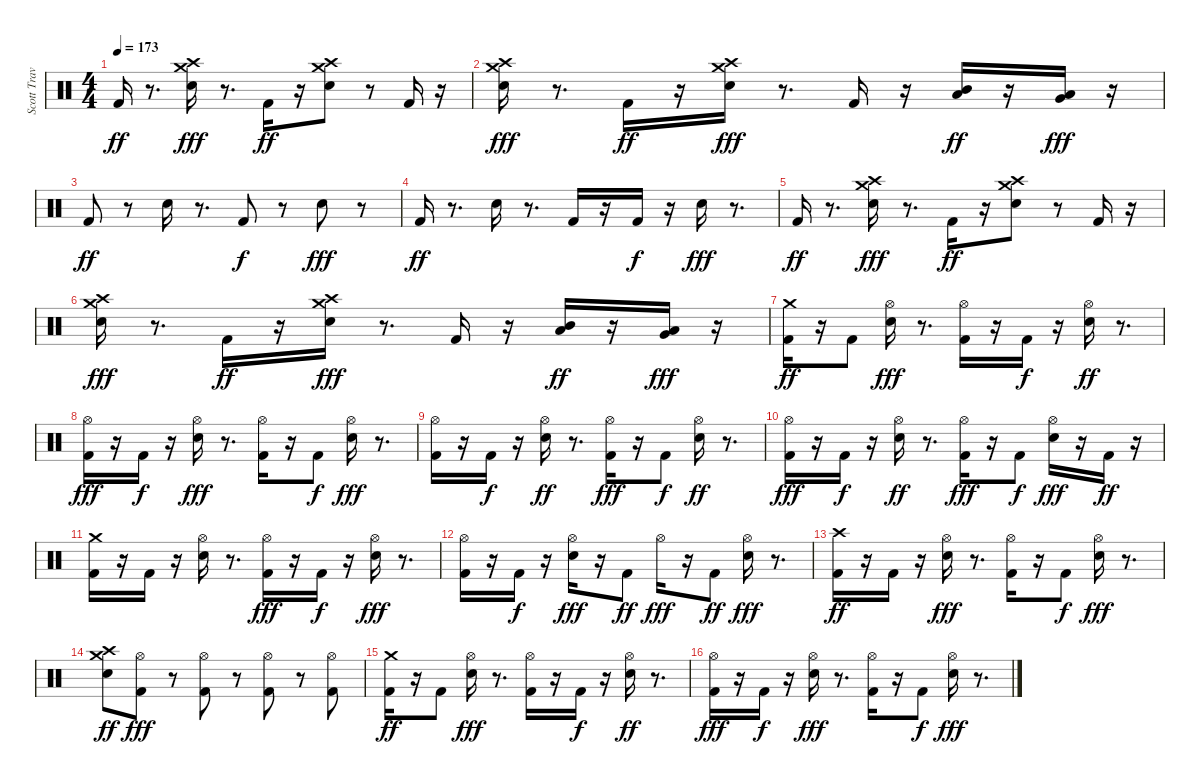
\track ("Scott Travis" "Scott Trav") {instrument percussion}
\staff {score}
\articulation defaults
\ts (4 4)
\tempo 173
\clef neutral
\ks c "Kick (hit) 2".16{dy ff}
r.8{d} ("Snare (hit) 2" "Crash high (hit)" "Crash medium (hit)").16{dy fff} r.8{d} "Kick (hit) 2".16{dy ff} r.16 ("Snare (hit) 2" "Crash high (hit)" "Crash medium (hit)").8 r.8 "Kick (hit) 2".16 r.16 |
("Snare (hit) 2" "Crash high (hit)" "Crash medium (hit)").16{dy fff} r.8{d} "Kick (hit) 2".16{dy ff} r.16 ("Snare (hit) 2" "Crash medium (hit)" "Crash high (hit)").16{dy fff} r.8{d} "Kick (hit) 2".16 r.16 ("Mid Tom (hit)" "Low Tom (hit)").16{dy ff} r.16 ("Very Low Tom (hit)" "Low Tom (hit)").16{dy fff} r.16 |
"Kick (hit) 2".8{dy ff} r.8 "Snare (hit) 2".16 r.8{d} "Kick (hit) 2".8{dy f} r.8 "Snare (hit) 2".8{dy fff} r.8 |
"Kick (hit) 2".16{dy ff} r.8{d} "Snare (hit) 2".16 r.8{d} "Kick (hit) 2".16 r.16 "Kick (hit) 2".16{dy f} r.16 "Snare (hit) 2".16{dy fff} r.8{d} |
"Kick (hit) 2".16{dy ff} r.8{d} ("Snare (hit) 2" "Crash high (hit)" "Crash medium (hit)").16{dy fff} r.8{d} "Kick (hit) 2".16{dy ff} r.16 ("Snare (hit) 2" "Crash high (hit)" "Crash medium (hit)").8 r.8 "Kick (hit) 2".16 r.16 |
("Snare (hit) 2" "Crash high (hit)" "Crash medium (hit)").16{dy fff} r.8{d} "Kick (hit) 2".16{dy ff} r.16 ("Snare (hit) 2" "Crash medium (hit)" "Crash high (hit)").16{dy fff} r.8{d} "Kick (hit) 2".16 r.16 ("Mid Tom (hit)" "Low Tom (hit)").16{dy ff} r.16 ("Very Low Tom (hit)" "Low Tom (hit)").16{dy fff} r.16 |
("Kick (hit) 2" "Crash medium (hit)").16{dy ff} r.16 "Kick (hit) 2".8 ("Hi-Hat (open)" "Snare (hit) 2").16{dy fff} r.8{d} ("Kick (hit) 2" "Hi-Hat (open)").16 r.16 "Kick (hit) 2".16{dy f} r.16 ("Hi-Hat (open)" "Snare (hit) 2").16{dy ff} r.8{d} |
("Hi-Hat (open)" "Kick (hit) 2").16{dy fff} r.16 "Kick (hit) 2".16{dy f} r.16 ("Snare (hit) 2" "Hi-Hat (open)").16{dy fff} r.8{d} ("Kick (hit) 2" "Hi-Hat (open)").16 r.16 "Kick (hit) 2".8{dy f} ("Snare (hit) 2" "Hi-Hat (open)").16{dy fff} r.8{d} |
("Kick (hit) 2" "Hi-Hat (open)").16 r.16 "Kick (hit) 2".16{dy f} r.16 ("Hi-Hat (open)" "Snare (hit) 2").16{dy ff} r.8{d} ("Kick (hit) 2" "Hi-Hat (open)").16{dy fff} r.16 "Kick (hit) 2".8{dy f} ("Hi-Hat (open)" "Snare (hit) 2").16{dy ff} r.8{d} |
("Kick (hit) 2" "Hi-Hat (open)").16{dy fff} r.16 "Kick (hit) 2".16{dy f} r.16 ("Hi-Hat (open)" "Snare (hit) 2").16{dy ff} r.8{d} ("Kick (hit) 2" "Hi-Hat (open)").16{dy fff} r.16 "Kick (hit) 2".8{dy f} ("Snare (hit) 2" "Hi-Hat (open)").16{dy fff} r.16 "Kick (hit) 2".16{dy ff} r.16 |
("Crash medium (hit)" "Kick (hit) 2").16 r.16 "Kick (hit) 2".16 r.16 ("Snare (hit) 2" "Hi-Hat (open)").16 r.8{d} ("Kick (hit) 2" "Hi-Hat (open)").16{dy fff} r.16 "Kick (hit) 2".16{dy f} r.16 ("Snare (hit) 2" "Hi-Hat (open)").16{dy fff} r.8{d} |
("Kick (hit) 2" "Hi-Hat (open)").16 r.16 "Kick (hit) 2".16{dy f} r.16 ("Snare (hit) 2" "Hi-Hat (open)").16{dy fff} r.16 "Kick (hit) 2".8{dy ff} "Hi-Hat (open)".16{dy fff} r.16 "Kick (hit) 2".8{dy ff} ("Snare (hit) 2" "Hi-Hat (open)").16{dy fff} r.8{d} |
("Crash high (hit)" "Kick (hit) 2").16{dy ff} r.16 "Kick (hit) 2".16 r.16 ("Hi-Hat (open)" "Snare (hit) 2").16{dy fff} r.8{d} ("Kick (hit) 2" "Hi-Hat (open)").16 r.16 "Kick (hit) 2".8{dy f} ("Snare (hit) 2" "Hi-Hat (open)").16{dy fff} r.8{d} |
("Snare (hit) 2" "Crash high (hit)" "Crash medium (hit)").8{dy ff} ("Hi-Hat (open)" "Kick (hit) 2").8{dy fff} r.8 ("Hi-Hat (open)" "Kick (hit) 2").8 r.8 ("Hi-Hat (open)" "Kick (hit) 2").8 r.8 ("Hi-Hat (open)" "Kick (hit) 2").8 |
("Kick (hit) 2" "Crash medium (hit)").16{dy ff} r.16 "Kick (hit) 2".8 ("Hi-Hat (open)" "Snare (hit) 2").16{dy fff} r.8{d} ("Kick (hit) 2" "Hi-Hat (open)").16 r.16 "Kick (hit) 2".16{dy f} r.16 ("Hi-Hat (open)" "Snare (hit) 2").16{dy ff} r.8{d} |
("Hi-Hat (open)" "Kick (hit) 2").16{dy fff} r.16 "Kick (hit) 2".16{dy f} r.16 ("Snare (hit) 2" "Hi-Hat (open)").16{dy fff} r.8{d} ("Kick (hit) 2" "Hi-Hat (open)").16 r.16 "Kick (hit) 2".8{dy f} ("Snare (hit) 2" "Hi-Hat (open)").16{dy fff} r.8{d}
